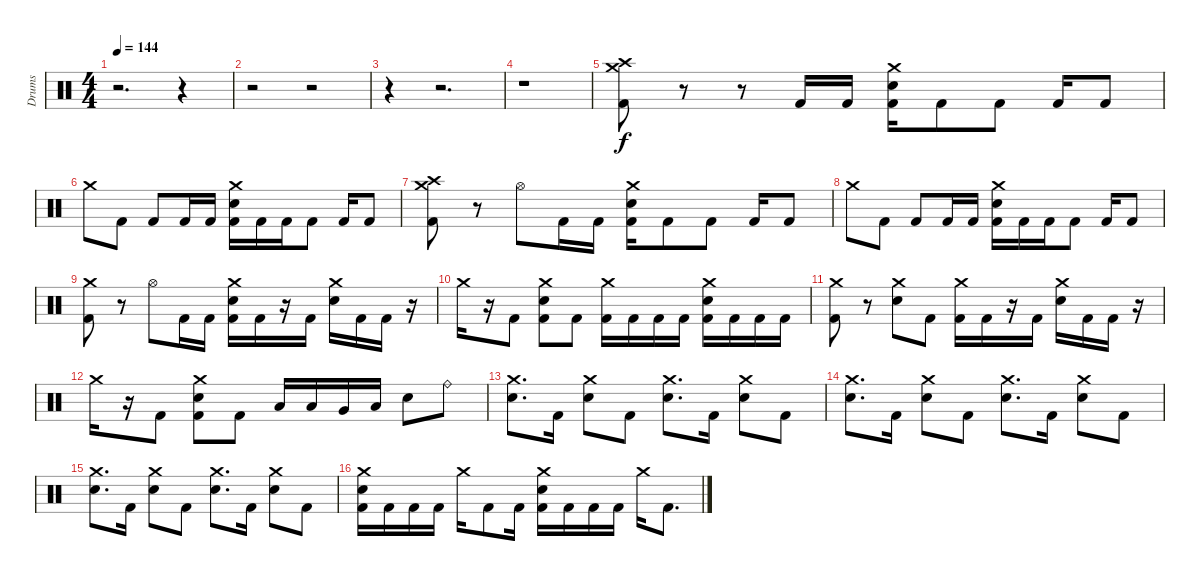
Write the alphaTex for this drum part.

\track ("Drums" "Drums") {instrument percussion}
\staff {score}
\articulation defaults
\ts (4 4)
\tempo 144
\clef neutral
\ks c
r.2{d dy f} r.4 |
r.2 r.2 |
r.4 r.2{d} |
r.1 |
("Crash medium (hit)" "Crash high (hit)" "Kick (hit) 2").8 r.8 r.8 "Kick (hit) 2".16 "Kick (hit) 2".16 ("Crash medium (hit)" "Electric Snare (hit)" "Kick (hit) 2").16 "Kick (hit) 2".8 "Kick (hit) 2".8 "Kick (hit) 2".16 "Kick (hit) 2".8 |
"Crash medium (hit)".8 "Kick (hit) 2".8 "Kick (hit) 2".8 "Kick (hit) 2".16 "Kick (hit) 2".16 ("Crash medium (hit)" "Electric Snare (hit)" "Kick (hit) 2").16 "Kick (hit) 2".16 "Kick (hit) 2".16 "Kick (hit) 2".8 "Kick (hit) 2".16 "Kick (hit) 2".8 |
("Crash medium (hit)" "Crash high (hit)" "Kick (hit) 2").8 r.8 "Hi-Hat (open)".8 "Kick (hit) 2".16 "Kick (hit) 2".16 ("Crash medium (hit)" "Electric Snare (hit)" "Kick (hit) 2").16 "Kick (hit) 2".8 "Kick (hit) 2".8 "Kick (hit) 2".16 "Kick (hit) 2".8 |
"Crash medium (hit)".8 "Kick (hit) 2".8 "Kick (hit) 2".8 "Kick (hit) 2".16 "Kick (hit) 2".16 ("Crash medium (hit)" "Electric Snare (hit)" "Kick (hit) 2").16 "Kick (hit) 2".16 "Kick (hit) 2".16 "Kick (hit) 2".8 "Kick (hit) 2".16 "Kick (hit) 2".8 |
("Crash medium (hit)" "Kick (hit) 2").8 r.8 "Hi-Hat (open)".8 "Kick (hit) 2".16 "Kick (hit) 2".16 ("Crash medium (hit)" "Electric Snare (hit)" "Kick (hit) 2").16 "Kick (hit) 2".16 r.16 "Kick (hit) 2".16 ("Crash medium (hit)" "Electric Snare (hit)").16 "Kick (hit) 2".16 "Kick (hit) 2".16 r.16 |
"Crash medium (hit)".16 r.16 "Kick (hit) 2".8 ("Crash medium (hit)" "Electric Snare (hit)" "Kick (hit) 2").8 "Kick (hit) 2".8 ("Crash medium (hit)" "Kick (hit) 2").16 "Kick (hit) 2".16 "Kick (hit) 2".16 "Kick (hit) 2".16 ("Crash medium (hit)" "Electric Snare (hit)" "Kick (hit) 2").16 "Kick (hit) 2".16 "Kick (hit) 2".16 "Kick (hit) 2".16 |
("Crash medium (hit)" "Kick (hit) 2").8 r.8 ("Crash medium (hit)" "Electric Snare (hit)").8 "Kick (hit) 2".8 ("Crash medium (hit)" "Kick (hit) 2").16 "Kick (hit) 2".16 r.16 "Kick (hit) 2".16 ("Crash medium (hit)" "Electric Snare (hit)").16 "Kick (hit) 2".16 "Kick (hit) 2".16 r.16 |
"Crash medium (hit)".16 r.16 "Kick (hit) 2".8 ("Crash medium (hit)" "Electric Snare (hit)" "Kick (hit) 2").8 "Kick (hit) 2".8 "Low Tom (hit)".16 "Low Tom (hit)".16 "Very Low Tom (hit)".16 "Low Floor Tom (hit)".16 "Electric Snare (hit)".8 "Ride (bell)".8 |
("Crash medium (hit)" "Electric Snare (hit)").8{d} "Kick (hit) 2".16 ("Crash medium (hit)" "Electric Snare (hit)").8 "Kick (hit) 2".8 ("Crash medium (hit)" "Electric Snare (hit)").8{d} "Kick (hit) 2".16 ("Crash medium (hit)" "Electric Snare (hit)").8 "Kick (hit) 2".8 |
("Crash medium (hit)" "Electric Snare (hit)").8{d} "Kick (hit) 2".16 ("Crash medium (hit)" "Electric Snare (hit)").8 "Kick (hit) 2".8 ("Crash medium (hit)" "Electric Snare (hit)").8{d} "Kick (hit) 2".16 ("Crash medium (hit)" "Electric Snare (hit)").8 "Kick (hit) 2".8 |
("Crash medium (hit)" "Electric Snare (hit)").8{d} "Kick (hit) 2".16 ("Crash medium (hit)" "Electric Snare (hit)").8 "Kick (hit) 2".8 ("Crash medium (hit)" "Electric Snare (hit)").8{d} "Kick (hit) 2".16 ("Crash medium (hit)" "Electric Snare (hit)").8 "Kick (hit) 2".8 |
("Crash medium (hit)" "Electric Snare (hit)" "Kick (hit) 2").16 "Kick (hit) 2".16 "Kick (hit) 2".16 "Kick (hit) 2".16 "Crash medium (hit)".16 "Kick (hit) 2".8 "Kick (hit) 2".16 ("Crash medium (hit)" "Electric Snare (hit)" "Kick (hit) 2").16 "Kick (hit) 2".16 "Kick (hit) 2".16 "Kick (hit) 2".16 "Crash medium (hit)".16 "Kick (hit) 2".8{d}
